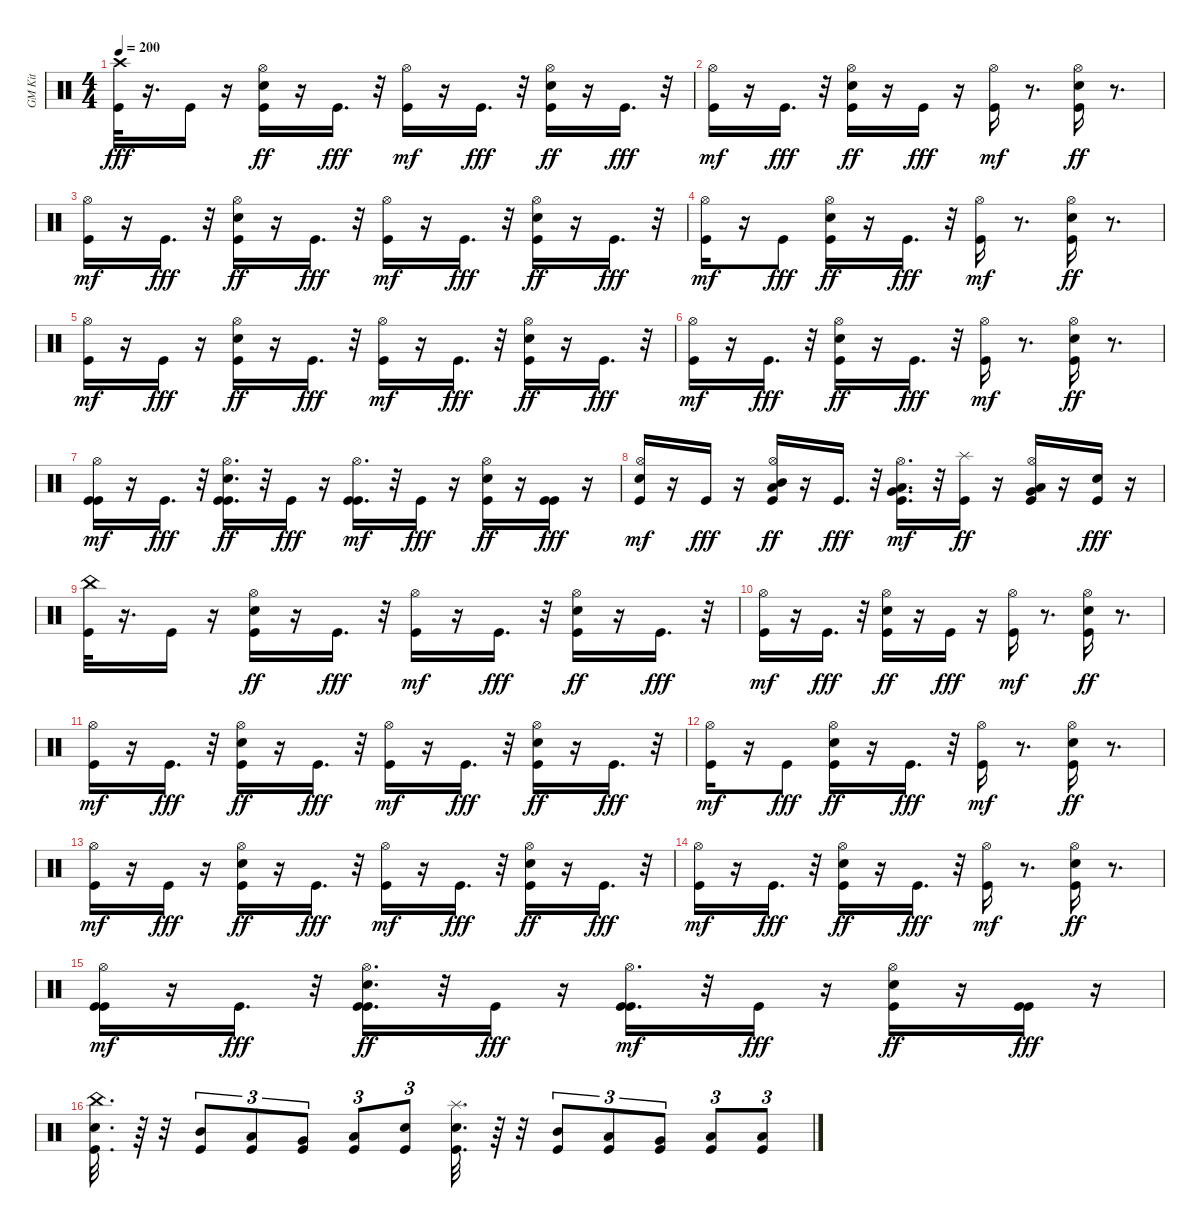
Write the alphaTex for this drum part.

\track ("GM Kit" "GM Kit") {instrument percussion}
\staff {score}
\articulation defaults
\ts (4 4)
\tempo 200
\clef neutral
\ks c
("Kick (hit)" "Crash high (hit)").32{dy fff} r.16{d} "Kick (hit)".16 r.16 ("Kick (hit)" "Snare (hit) 2" "Hi-Hat (open)").16{dy ff} r.16 "Kick (hit)".16{d dy fff} r.32 ("Kick (hit)" "Hi-Hat (open)").16{dy mf} r.16 "Kick (hit)".16{d dy fff} r.32 ("Kick (hit)" "Snare (hit) 2" "Hi-Hat (open)").16{dy ff} r.16 "Kick (hit)".16{d dy fff} r.32 |
("Kick (hit)" "Hi-Hat (open)").16{dy mf} r.16 "Kick (hit)".16{d dy fff} r.32 ("Kick (hit)" "Snare (hit) 2" "Hi-Hat (open)").16{dy ff} r.16 "Kick (hit)".16{dy fff} r.16 ("Kick (hit)" "Hi-Hat (open)").16{dy mf} r.8{d} ("Kick (hit)" "Snare (hit) 2" "Hi-Hat (open)").16{dy ff} r.8{d} |
("Kick (hit)" "Hi-Hat (open)").16{dy mf} r.16 "Kick (hit)".16{d dy fff} r.32 ("Kick (hit)" "Snare (hit) 2" "Hi-Hat (open)").16{dy ff} r.16 "Kick (hit)".16{d dy fff} r.32 ("Kick (hit)" "Hi-Hat (open)").16{dy mf} r.16 "Kick (hit)".16{d dy fff} r.32 ("Kick (hit)" "Snare (hit) 2" "Hi-Hat (open)").16{dy ff} r.16 "Kick (hit)".16{d dy fff} r.32 |
("Kick (hit)" "Hi-Hat (open)").16{dy mf} r.16 "Kick (hit)".8{dy fff} ("Kick (hit)" "Snare (hit) 2" "Hi-Hat (open)").16{dy ff} r.16 "Kick (hit)".16{d dy fff} r.32 ("Kick (hit)" "Hi-Hat (open)").16{dy mf} r.8{d} ("Kick (hit)" "Snare (hit) 2" "Hi-Hat (open)").16{dy ff} r.8{d} |
("Kick (hit)" "Hi-Hat (open)").16{dy mf} r.16 "Kick (hit)".16{dy fff} r.16 ("Kick (hit)" "Snare (hit) 2" "Hi-Hat (open)").16{dy ff} r.16 "Kick (hit)".16{d dy fff} r.32 ("Kick (hit)" "Hi-Hat (open)").16{dy mf} r.16 "Kick (hit)".16{d dy fff} r.32 ("Kick (hit)" "Snare (hit) 2" "Hi-Hat (open)").16{dy ff} r.16 "Kick (hit)".16{d dy fff} r.32 |
("Kick (hit)" "Hi-Hat (open)").16{dy mf} r.16 "Kick (hit)".16{d dy fff} r.32 ("Kick (hit)" "Snare (hit) 2" "Hi-Hat (open)").16{dy ff} r.16 "Kick (hit)".16{d dy fff} r.32 ("Kick (hit)" "Hi-Hat (open)").16{dy mf} r.8{d} ("Kick (hit)" "Snare (hit) 2" "Hi-Hat (open)").16{dy ff} r.8{d} |
("Kick (hit)" "Kick (hit)" "Hi-Hat (open)").16{dy mf} r.16 "Kick (hit)".16{d dy fff} r.32 ("Kick (hit)" "Kick (hit)" "Snare (hit) 2" "Hi-Hat (open)").16{d dy ff} r.32 "Kick (hit)".16{dy fff} r.16 ("Kick (hit)" "Kick (hit)" "Hi-Hat (open)").16{d dy mf} r.32 "Kick (hit)".16{dy fff} r.16 ("Kick (hit)" "Snare (hit) 2" "Hi-Hat (open)").16{dy ff} r.16 ("Kick (hit)" "Kick (hit)").16{dy fff} r.16 |
("Kick (hit)" "Electric Snare (hit)" "Hi-Hat (open)").16{dy mf} r.16 "Kick (hit)".16{dy fff} r.16 ("Kick (hit)" "Low Tom (hit)" "Hi-Hat (open)" "Mid Tom (hit)").16{dy ff} r.16 "Kick (hit)".16{d dy fff} r.32 ("Kick (hit)" "Very Low Tom (hit)" "Low Tom (hit)" "Hi-Hat (open)").16{d dy mf} r.32 ("Kick (hit)" "Splash (hit)").16{dy ff} r.16 ("Kick (hit)" "Very Low Tom (hit)" "Low Tom (hit)" "Hi-Hat (open)").16 r.16 ("Kick (hit)" "Electric Snare (hit)").16{dy fff} r.16 |
("Kick (hit)" "China (hit)").32 r.16{d} "Kick (hit)".16 r.16 ("Kick (hit)" "Snare (hit) 2" "Hi-Hat (open)").16{dy ff} r.16 "Kick (hit)".16{d dy fff} r.32 ("Kick (hit)" "Hi-Hat (open)").16{dy mf} r.16 "Kick (hit)".16{d dy fff} r.32 ("Kick (hit)" "Snare (hit) 2" "Hi-Hat (open)").16{dy ff} r.16 "Kick (hit)".16{d dy fff} r.32 |
("Kick (hit)" "Hi-Hat (open)").16{dy mf} r.16 "Kick (hit)".16{d dy fff} r.32 ("Kick (hit)" "Snare (hit) 2" "Hi-Hat (open)").16{dy ff} r.16 "Kick (hit)".16{dy fff} r.16 ("Kick (hit)" "Hi-Hat (open)").16{dy mf} r.8{d} ("Kick (hit)" "Snare (hit) 2" "Hi-Hat (open)").16{dy ff} r.8{d} |
("Kick (hit)" "Hi-Hat (open)").16{dy mf} r.16 "Kick (hit)".16{d dy fff} r.32 ("Kick (hit)" "Snare (hit) 2" "Hi-Hat (open)").16{dy ff} r.16 "Kick (hit)".16{d dy fff} r.32 ("Kick (hit)" "Hi-Hat (open)").16{dy mf} r.16 "Kick (hit)".16{d dy fff} r.32 ("Kick (hit)" "Snare (hit) 2" "Hi-Hat (open)").16{dy ff} r.16 "Kick (hit)".16{d dy fff} r.32 |
("Kick (hit)" "Hi-Hat (open)").16{dy mf} r.16 "Kick (hit)".8{dy fff} ("Kick (hit)" "Snare (hit) 2" "Hi-Hat (open)").16{dy ff} r.16 "Kick (hit)".16{d dy fff} r.32 ("Kick (hit)" "Hi-Hat (open)").16{dy mf} r.8{d} ("Kick (hit)" "Snare (hit) 2" "Hi-Hat (open)").16{dy ff} r.8{d} |
("Kick (hit)" "Hi-Hat (open)").16{dy mf} r.16 "Kick (hit)".16{dy fff} r.16 ("Kick (hit)" "Snare (hit) 2" "Hi-Hat (open)").16{dy ff} r.16 "Kick (hit)".16{d dy fff} r.32 ("Kick (hit)" "Hi-Hat (open)").16{dy mf} r.16 "Kick (hit)".16{d dy fff} r.32 ("Kick (hit)" "Snare (hit) 2" "Hi-Hat (open)").16{dy ff} r.16 "Kick (hit)".16{d dy fff} r.32 |
("Kick (hit)" "Hi-Hat (open)").16{dy mf} r.16 "Kick (hit)".16{d dy fff} r.32 ("Kick (hit)" "Snare (hit) 2" "Hi-Hat (open)").16{dy ff} r.16 "Kick (hit)".16{d dy fff} r.32 ("Kick (hit)" "Hi-Hat (open)").16{dy mf} r.8{d} ("Kick (hit)" "Snare (hit) 2" "Hi-Hat (open)").16{dy ff} r.8{d} |
("Kick (hit)" "Kick (hit)" "Hi-Hat (open)").16{dy mf} r.16 "Kick (hit)".16{d dy fff} r.32 ("Kick (hit)" "Kick (hit)" "Snare (hit) 2" "Hi-Hat (open)").16{d dy ff} r.32 "Kick (hit)".16{dy fff} r.16 ("Kick (hit)" "Kick (hit)" "Hi-Hat (open)").16{d dy mf} r.32 "Kick (hit)".16{dy fff} r.16 ("Kick (hit)" "Snare (hit) 2" "Hi-Hat (open)").16{dy ff} r.16 ("Kick (hit)" "Kick (hit)").16{dy fff} r.16 |
("Kick (hit)" "Snare (hit) 2" "China (hit)").32{d} r.64 r.32 ("Kick (hit)" "Mid Tom (hit)").8{tu (3 2)} ("Kick (hit)" "Low Tom (hit)").8{tu (3 2)} ("Kick (hit)" "Very Low Tom (hit)").8{tu (3 2)} ("Kick (hit)" "Low Floor Tom (hit)").8{tu (3 2)} ("Kick (hit)" "Electric Snare (hit)").8{tu (3 2)} ("Kick (hit)" "Snare (hit) 2" "Splash (hit)").32{d} r.64 r.32 ("Kick (hit)" "Mid Tom (hit)").8{tu (3 2)} ("Kick (hit)" "Low Tom (hit)").8{tu (3 2)} ("Kick (hit)" "Very Low Tom (hit)").8{tu (3 2)} ("Kick (hit)" "Low Floor Tom (hit)").8{tu (3 2)} ("Kick (hit)" "Low Floor Tom (hit)").8{tu (3 2)}
